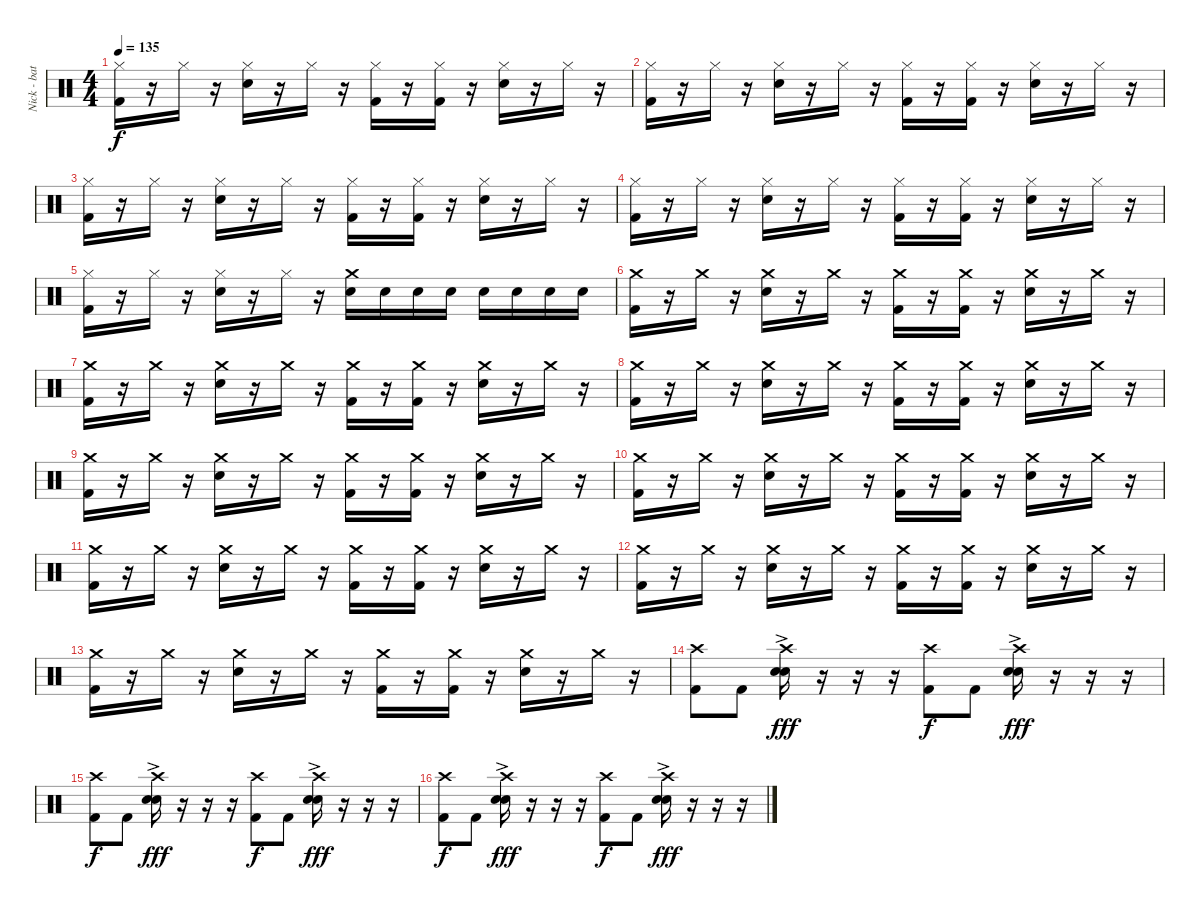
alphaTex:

\track ("Nick - batterie" "Nick - bat") {instrument percussion}
\staff {score}
\articulation defaults
\ts (4 4)
\tempo 135
\clef neutral
\ks c
("Hi-Hat (closed)" "Kick (hit) 2").16{dy f} r.16 "Hi-Hat (closed)".16 r.16 ("Hi-Hat (closed)" "Electric Snare (hit)").16 r.16 "Hi-Hat (closed)".16 r.16 ("Hi-Hat (closed)" "Kick (hit) 2").16 r.16 ("Hi-Hat (closed)" "Kick (hit) 2").16 r.16 ("Hi-Hat (closed)" "Electric Snare (hit)").16 r.16 "Hi-Hat (closed)".16 r.16 |
("Hi-Hat (closed)" "Kick (hit) 2").16 r.16 "Hi-Hat (closed)".16 r.16 ("Hi-Hat (closed)" "Electric Snare (hit)").16 r.16 "Hi-Hat (closed)".16 r.16 ("Hi-Hat (closed)" "Kick (hit) 2").16 r.16 ("Hi-Hat (closed)" "Kick (hit) 2").16 r.16 ("Hi-Hat (closed)" "Electric Snare (hit)").16 r.16 "Hi-Hat (closed)".16 r.16 |
("Hi-Hat (closed)" "Kick (hit) 2").16 r.16 "Hi-Hat (closed)".16 r.16 ("Hi-Hat (closed)" "Electric Snare (hit)").16 r.16 "Hi-Hat (closed)".16 r.16 ("Hi-Hat (closed)" "Kick (hit) 2").16 r.16 ("Hi-Hat (closed)" "Kick (hit) 2").16 r.16 ("Hi-Hat (closed)" "Electric Snare (hit)").16 r.16 "Hi-Hat (closed)".16 r.16 |
("Hi-Hat (closed)" "Kick (hit) 2").16 r.16 "Hi-Hat (closed)".16 r.16 ("Hi-Hat (closed)" "Electric Snare (hit)").16 r.16 "Hi-Hat (closed)".16 r.16 ("Hi-Hat (closed)" "Kick (hit) 2").16 r.16 ("Hi-Hat (closed)" "Kick (hit) 2").16 r.16 ("Hi-Hat (closed)" "Electric Snare (hit)").16 r.16 "Hi-Hat (closed)".16 r.16 |
("Hi-Hat (closed)" "Kick (hit) 2").16 r.16 "Hi-Hat (closed)".16 r.16 ("Hi-Hat (closed)" "Electric Snare (hit)").16 r.16 "Hi-Hat (closed)".16 r.16 ("Crash medium (hit)" "Electric Snare (hit)").16 "Electric Snare (hit)".16 "Electric Snare (hit)".16 "Electric Snare (hit)".16 "Electric Snare (hit)".16 "Electric Snare (hit)".16 "Electric Snare (hit)".16 "Electric Snare (hit)".16 |
("Crash medium (hit)" "Kick (hit) 2").16 r.16 "Crash medium (hit)".16 r.16 ("Crash medium (hit)" "Electric Snare (hit)").16 r.16 "Crash medium (hit)".16 r.16 ("Crash medium (hit)" "Kick (hit) 2").16 r.16 ("Crash medium (hit)" "Kick (hit) 2").16 r.16 ("Crash medium (hit)" "Electric Snare (hit)").16 r.16 "Crash medium (hit)".16 r.16 |
("Crash medium (hit)" "Kick (hit) 2").16 r.16 "Crash medium (hit)".16 r.16 ("Crash medium (hit)" "Electric Snare (hit)").16 r.16 "Crash medium (hit)".16 r.16 ("Crash medium (hit)" "Kick (hit) 2").16 r.16 ("Crash medium (hit)" "Kick (hit) 2").16 r.16 ("Crash medium (hit)" "Electric Snare (hit)").16 r.16 "Crash medium (hit)".16 r.16 |
("Crash medium (hit)" "Kick (hit) 2").16 r.16 "Crash medium (hit)".16 r.16 ("Crash medium (hit)" "Electric Snare (hit)").16 r.16 "Crash medium (hit)".16 r.16 ("Crash medium (hit)" "Kick (hit) 2").16 r.16 ("Crash medium (hit)" "Kick (hit) 2").16 r.16 ("Crash medium (hit)" "Electric Snare (hit)").16 r.16 "Crash medium (hit)".16 r.16 |
("Crash medium (hit)" "Kick (hit) 2").16 r.16 "Crash medium (hit)".16 r.16 ("Crash medium (hit)" "Electric Snare (hit)").16 r.16 "Crash medium (hit)".16 r.16 ("Crash medium (hit)" "Kick (hit) 2").16 r.16 ("Crash medium (hit)" "Kick (hit) 2").16 r.16 ("Crash medium (hit)" "Electric Snare (hit)").16 r.16 "Crash medium (hit)".16 r.16 |
("Crash medium (hit)" "Kick (hit) 2").16 r.16 "Crash medium (hit)".16 r.16 ("Crash medium (hit)" "Electric Snare (hit)").16 r.16 "Crash medium (hit)".16 r.16 ("Crash medium (hit)" "Kick (hit) 2").16 r.16 ("Crash medium (hit)" "Kick (hit) 2").16 r.16 ("Crash medium (hit)" "Electric Snare (hit)").16 r.16 "Crash medium (hit)".16 r.16 |
("Crash medium (hit)" "Kick (hit) 2").16 r.16 "Crash medium (hit)".16 r.16 ("Crash medium (hit)" "Electric Snare (hit)").16 r.16 "Crash medium (hit)".16 r.16 ("Crash medium (hit)" "Kick (hit) 2").16 r.16 ("Crash medium (hit)" "Kick (hit) 2").16 r.16 ("Crash medium (hit)" "Electric Snare (hit)").16 r.16 "Crash medium (hit)".16 r.16 |
("Crash medium (hit)" "Kick (hit) 2").16 r.16 "Crash medium (hit)".16 r.16 ("Crash medium (hit)" "Electric Snare (hit)").16 r.16 "Crash medium (hit)".16 r.16 ("Crash medium (hit)" "Kick (hit) 2").16 r.16 ("Crash medium (hit)" "Kick (hit) 2").16 r.16 ("Crash medium (hit)" "Electric Snare (hit)").16 r.16 "Crash medium (hit)".16 r.16 |
("Crash medium (hit)" "Kick (hit) 2").16 r.16 "Crash medium (hit)".16 r.16 ("Crash medium (hit)" "Electric Snare (hit)").16 r.16 "Crash medium (hit)".16 r.16 ("Crash medium (hit)" "Kick (hit) 2").16 r.16 ("Crash medium (hit)" "Kick (hit) 2").16 r.16 ("Crash medium (hit)" "Electric Snare (hit)").16 r.16 "Crash medium (hit)".16 r.16 |
("Crash high (hit)" "Kick (hit) 2").8 "Kick (hit) 2".8 ("Crash high (hit)" "Electric Snare (hit)"{ac} "Electric Snare (hit)").16{dy fff} r.16 r.16 r.16 ("Crash high (hit)" "Kick (hit) 2").8{dy f} "Kick (hit) 2".8 ("Crash high (hit)" "Electric Snare (hit)"{ac} "Electric Snare (hit)").16{dy fff} r.16 r.16 r.16 |
("Crash high (hit)" "Kick (hit) 2").8{dy f} "Kick (hit) 2".8 ("Crash high (hit)" "Electric Snare (hit)"{ac} "Electric Snare (hit)").16{dy fff} r.16 r.16 r.16 ("Crash high (hit)" "Kick (hit) 2").8{dy f} "Kick (hit) 2".8 ("Crash high (hit)" "Electric Snare (hit)"{ac} "Electric Snare (hit)").16{dy fff} r.16 r.16 r.16 |
("Crash high (hit)" "Kick (hit) 2").8{dy f} "Kick (hit) 2".8 ("Crash high (hit)" "Electric Snare (hit)"{ac} "Electric Snare (hit)").16{dy fff} r.16 r.16 r.16 ("Crash high (hit)" "Kick (hit) 2").8{dy f} "Kick (hit) 2".8 ("Crash high (hit)" "Electric Snare (hit)"{ac} "Electric Snare (hit)").16{dy fff} r.16 r.16 r.16
